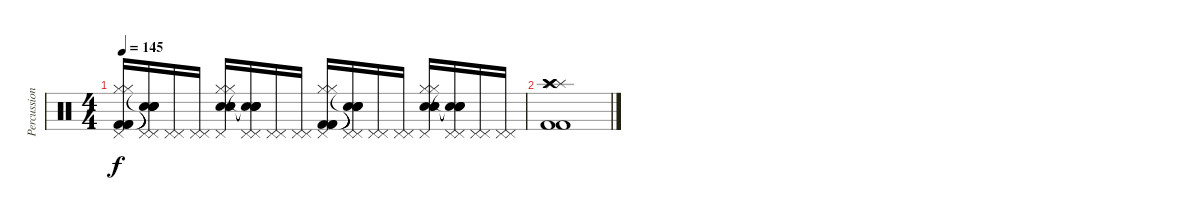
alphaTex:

\track ("Percussion" "Percussion") {instrument percussion}
\staff {score}
\articulation defaults
\ts (4 4)
\tempo 145
\clef neutral
\ks c
("Pedal Hi-Hat (hit)" "Hi-Hat (closed)" "Hi-Hat (closed)" "Kick (hit) 2" "Kick (hit) 2" "Kick (hit) 2").16{dy f} ("Pedal Hi-Hat (hit)" "Pedal Hi-Hat (hit)" "Snare (hit)"{t} "Snare (hit)"{t} "Snare (hit)"{t} "Snare (hit)"{t}).16 ("Pedal Hi-Hat (hit)" "Pedal Hi-Hat (hit)").16 ("Pedal Hi-Hat (hit)" "Pedal Hi-Hat (hit)").16 ("Pedal Hi-Hat (hit)" "Hi-Hat (closed)" "Hi-Hat (closed)" "Snare (hit) 2" "Snare (hit) 2" "Snare (hit) 2").16 ("Pedal Hi-Hat (hit)" "Pedal Hi-Hat (hit)" "Snare (hit)"{t} "Snare (hit)"{t} "Snare (hit)"{t} "Snare (hit)"{t}).16 ("Pedal Hi-Hat (hit)" "Pedal Hi-Hat (hit)").16 ("Pedal Hi-Hat (hit)" "Pedal Hi-Hat (hit)").16 ("Pedal Hi-Hat (hit)" "Hi-Hat (closed)" "Hi-Hat (closed)" "Kick (hit) 2" "Kick (hit) 2" "Kick (hit) 2").16 ("Pedal Hi-Hat (hit)" "Pedal Hi-Hat (hit)" "Snare (hit)"{t} "Snare (hit)"{t} "Snare (hit)"{t} "Snare (hit)"{t}).16 ("Pedal Hi-Hat (hit)" "Pedal Hi-Hat (hit)").16 ("Pedal Hi-Hat (hit)" "Pedal Hi-Hat (hit)").16 ("Pedal Hi-Hat (hit)" "Hi-Hat (closed)" "Hi-Hat (closed)" "Snare (hit) 2" "Snare (hit) 2" "Snare (hit) 2").16 ("Pedal Hi-Hat (hit)" "Pedal Hi-Hat (hit)" "Snare (hit)"{t} "Snare (hit)"{t} "Snare (hit)"{t} "Snare (hit)"{t}).16 ("Pedal Hi-Hat (hit)" "Pedal Hi-Hat (hit)").16 ("Pedal Hi-Hat (hit)" "Pedal Hi-Hat (hit)").16 |
("Splash (hit)" "Splash (hit)" "Crash high (hit)" "Crash high (hit)" "Kick (hit) 2" "Kick (hit) 2").1
